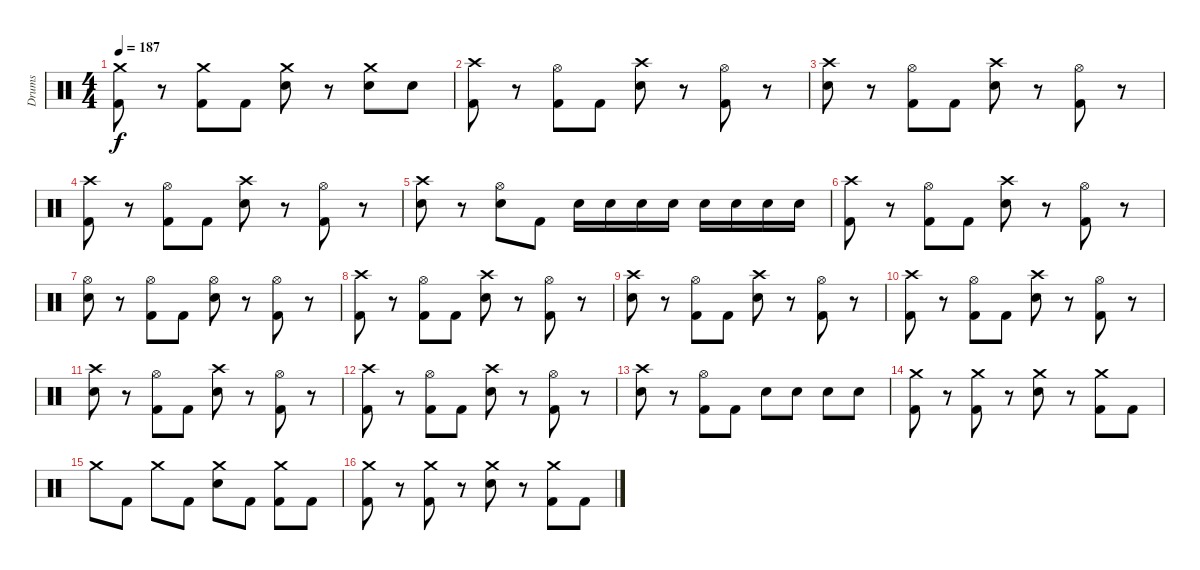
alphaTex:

\track ("Drums" "Drums") {instrument percussion}
\staff {score}
\articulation defaults
\ts (4 4)
\tempo 187
\clef neutral
\ks c
("Crash medium (hit)" "Kick (hit) 2").8{dy f} r.8 ("Crash medium (hit)" "Kick (hit) 2").8 "Kick (hit) 2".8 ("Crash medium (hit)" "Electric Snare (hit)").8 r.8 ("Crash medium (hit)" "Electric Snare (hit)").8 "Electric Snare (hit)".8 |
("Crash high (hit)" "Kick (hit) 2").8 r.8 ("Hi-Hat (open)" "Kick (hit) 2").8 "Kick (hit) 2".8 ("Crash high (hit)" "Electric Snare (hit)").8 r.8 ("Hi-Hat (open)" "Kick (hit) 2").8 r.8 |
("Crash high (hit)" "Electric Snare (hit)").8 r.8 ("Hi-Hat (open)" "Kick (hit) 2").8 "Kick (hit) 2".8 ("Crash high (hit)" "Electric Snare (hit)").8 r.8 ("Hi-Hat (open)" "Kick (hit) 2").8 r.8 |
("Crash high (hit)" "Kick (hit) 2").8 r.8 ("Hi-Hat (open)" "Kick (hit) 2").8 "Kick (hit) 2".8 ("Crash high (hit)" "Electric Snare (hit)").8 r.8 ("Hi-Hat (open)" "Kick (hit) 2").8 r.8 |
("Crash high (hit)" "Electric Snare (hit)").8 r.8 ("Hi-Hat (open)" "Electric Snare (hit)").8 "Kick (hit) 2".8 "Electric Snare (hit)".16 "Electric Snare (hit)".16 "Electric Snare (hit)".16 "Electric Snare (hit)".16 "Electric Snare (hit)".16 "Electric Snare (hit)".16 "Electric Snare (hit)".16 "Electric Snare (hit)".16 |
("Crash high (hit)" "Kick (hit) 2").8 r.8 ("Hi-Hat (open)" "Kick (hit) 2").8 "Kick (hit) 2".8 ("Crash high (hit)" "Electric Snare (hit)").8 r.8 ("Hi-Hat (open)" "Kick (hit) 2").8 r.8 |
("Hi-Hat (open)" "Electric Snare (hit)").8 r.8 ("Hi-Hat (open)" "Kick (hit) 2").8 "Kick (hit) 2".8 ("Hi-Hat (open)" "Electric Snare (hit)").8 r.8 ("Hi-Hat (open)" "Kick (hit) 2").8 r.8 |
("Crash high (hit)" "Kick (hit) 2").8 r.8 ("Hi-Hat (open)" "Kick (hit) 2").8 "Kick (hit) 2".8 ("Crash high (hit)" "Electric Snare (hit)").8 r.8 ("Hi-Hat (open)" "Kick (hit) 2").8 r.8 |
("Crash high (hit)" "Electric Snare (hit)").8 r.8 ("Hi-Hat (open)" "Kick (hit) 2").8 "Kick (hit) 2".8 ("Crash high (hit)" "Electric Snare (hit)").8 r.8 ("Hi-Hat (open)" "Kick (hit) 2").8 r.8 |
("Crash high (hit)" "Kick (hit) 2").8 r.8 ("Hi-Hat (open)" "Kick (hit) 2").8 "Kick (hit) 2".8 ("Crash high (hit)" "Electric Snare (hit)").8 r.8 ("Hi-Hat (open)" "Kick (hit) 2").8 r.8 |
("Crash high (hit)" "Electric Snare (hit)").8 r.8 ("Hi-Hat (open)" "Kick (hit) 2").8 "Kick (hit) 2".8 ("Crash high (hit)" "Electric Snare (hit)").8 r.8 ("Hi-Hat (open)" "Kick (hit) 2").8 r.8 |
("Crash high (hit)" "Kick (hit) 2").8 r.8 ("Hi-Hat (open)" "Kick (hit) 2").8 "Kick (hit) 2".8 ("Crash high (hit)" "Electric Snare (hit)").8 r.8 ("Hi-Hat (open)" "Kick (hit) 2").8 r.8 |
("Crash high (hit)" "Electric Snare (hit)").8 r.8 ("Hi-Hat (open)" "Kick (hit) 2").8 "Kick (hit) 2".8 "Electric Snare (hit)".8 "Electric Snare (hit)".8 "Electric Snare (hit)".8 "Electric Snare (hit)".8 |
("Crash medium (hit)" "Kick (hit) 2").8 r.8 ("Crash medium (hit)" "Kick (hit) 2").8 r.8 ("Crash medium (hit)" "Electric Snare (hit)").8 r.8 ("Crash medium (hit)" "Kick (hit) 2").8 "Kick (hit) 2".8 |
"Crash medium (hit)".8 "Kick (hit) 2".8 "Crash medium (hit)".8 "Kick (hit) 2".8 ("Crash medium (hit)" "Electric Snare (hit)").8 "Kick (hit) 2".8 ("Crash medium (hit)" "Kick (hit) 2").8 "Kick (hit) 2".8 |
("Crash medium (hit)" "Kick (hit) 2").8 r.8 ("Crash medium (hit)" "Kick (hit) 2").8 r.8 ("Crash medium (hit)" "Electric Snare (hit)").8 r.8 ("Crash medium (hit)" "Kick (hit) 2").8 "Kick (hit) 2".8
